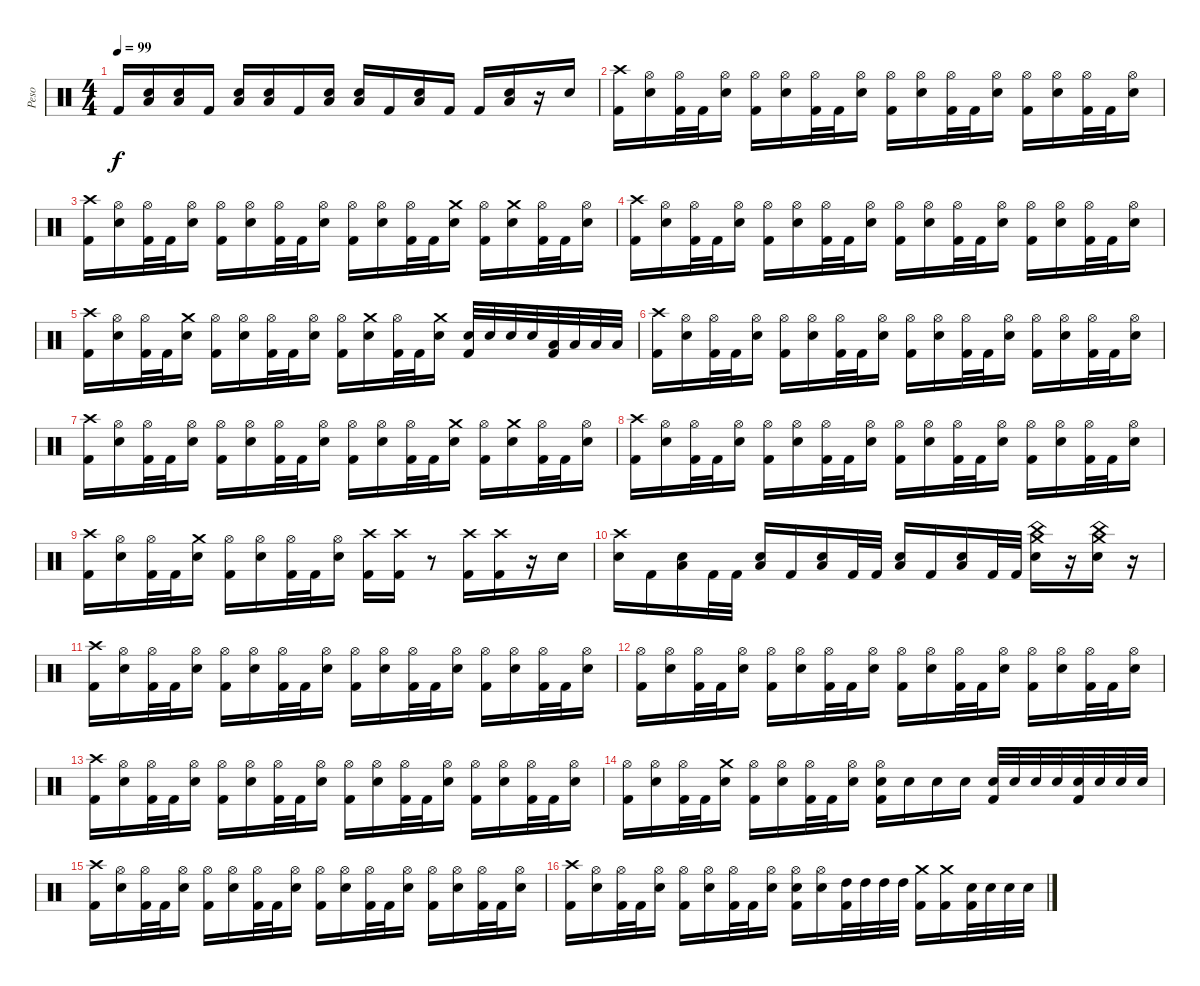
\track ("Peso" "Peso") {instrument percussion}
\staff {score}
\articulation defaults
\ts (4 4)
\tempo 99
\clef neutral
\ks c "Kick (hit) 2".16{dy f}
("Low Floor Tom (hit)" "Electric Snare (hit)").16 ("Low Floor Tom (hit)" "Electric Snare (hit)").16 "Kick (hit) 2".16 ("Low Floor Tom (hit)" "Electric Snare (hit)").16 ("Low Floor Tom (hit)" "Electric Snare (hit)").16 "Kick (hit) 2".16 ("Low Floor Tom (hit)" "Electric Snare (hit)").16 ("Low Floor Tom (hit)" "Electric Snare (hit)").16 "Kick (hit) 2".16 ("Low Floor Tom (hit)" "Electric Snare (hit)").16 "Kick (hit) 2".16 "Kick (hit) 2".16 ("Low Floor Tom (hit)" "Electric Snare (hit)").16 r.16 "Electric Snare (hit)".16 |
("Crash high (hit)" "Kick (hit) 2").16 ("Hi-Hat (open)" "Electric Snare (hit)").16 ("Hi-Hat (open)" "Kick (hit) 2").32 "Kick (hit) 2".32 ("Hi-Hat (open)" "Electric Snare (hit)").16 ("Hi-Hat (open)" "Kick (hit) 2").16 ("Hi-Hat (open)" "Electric Snare (hit)").16 ("Hi-Hat (open)" "Kick (hit) 2").32 "Kick (hit) 2".32 ("Hi-Hat (open)" "Electric Snare (hit)").16 ("Hi-Hat (open)" "Kick (hit) 2").16 ("Hi-Hat (open)" "Electric Snare (hit)").16 ("Hi-Hat (open)" "Kick (hit) 2").32 "Kick (hit) 2".32 ("Hi-Hat (open)" "Electric Snare (hit)").16 ("Hi-Hat (open)" "Kick (hit) 2").16 ("Hi-Hat (open)" "Electric Snare (hit)").16 ("Hi-Hat (open)" "Kick (hit) 2").32 "Kick (hit) 2".32 ("Hi-Hat (open)" "Electric Snare (hit)").16 |
("Crash high (hit)" "Kick (hit) 2").16 ("Hi-Hat (open)" "Electric Snare (hit)").16 ("Hi-Hat (open)" "Kick (hit) 2").32 "Kick (hit) 2".32 ("Hi-Hat (open)" "Electric Snare (hit)").16 ("Hi-Hat (open)" "Kick (hit) 2").16 ("Hi-Hat (open)" "Electric Snare (hit)").16 ("Hi-Hat (open)" "Kick (hit) 2").32 "Kick (hit) 2".32 ("Hi-Hat (open)" "Electric Snare (hit)").16 ("Hi-Hat (open)" "Kick (hit) 2").16 ("Hi-Hat (open)" "Electric Snare (hit)").16 ("Hi-Hat (open)" "Kick (hit) 2").32 "Kick (hit) 2".32 ("Crash medium (hit)" "Electric Snare (hit)").16 ("Hi-Hat (open)" "Kick (hit) 2").16 ("Crash medium (hit)" "Electric Snare (hit)").16 ("Hi-Hat (open)" "Kick (hit) 2").32 "Kick (hit) 2".32 ("Hi-Hat (open)" "Electric Snare (hit)").16 |
("Crash high (hit)" "Kick (hit) 2").16 ("Hi-Hat (open)" "Electric Snare (hit)").16 ("Hi-Hat (open)" "Kick (hit) 2").32 "Kick (hit) 2".32 ("Hi-Hat (open)" "Electric Snare (hit)").16 ("Hi-Hat (open)" "Kick (hit) 2").16 ("Hi-Hat (open)" "Electric Snare (hit)").16 ("Hi-Hat (open)" "Kick (hit) 2").32 "Kick (hit) 2".32 ("Hi-Hat (open)" "Electric Snare (hit)").16 ("Hi-Hat (open)" "Kick (hit) 2").16 ("Hi-Hat (open)" "Electric Snare (hit)").16 ("Hi-Hat (open)" "Kick (hit) 2").32 "Kick (hit) 2".32 ("Hi-Hat (open)" "Electric Snare (hit)").16 ("Hi-Hat (open)" "Kick (hit) 2").16 ("Hi-Hat (open)" "Electric Snare (hit)").16 ("Hi-Hat (open)" "Kick (hit) 2").32 "Kick (hit) 2".32 ("Hi-Hat (open)" "Electric Snare (hit)").16 |
("Crash high (hit)" "Kick (hit) 2").16 ("Hi-Hat (open)" "Electric Snare (hit)").16 ("Hi-Hat (open)" "Kick (hit) 2").32 "Kick (hit) 2".32 ("Crash medium (hit)" "Electric Snare (hit)").16 ("Hi-Hat (open)" "Kick (hit) 2").16 ("Hi-Hat (open)" "Electric Snare (hit)").16 ("Hi-Hat (open)" "Kick (hit) 2").32 "Kick (hit) 2".32 ("Hi-Hat (open)" "Electric Snare (hit)").16 ("Hi-Hat (open)" "Kick (hit) 2").16 ("Crash medium (hit)" "Electric Snare (hit)").16 ("Hi-Hat (open)" "Kick (hit) 2").32 "Kick (hit) 2".32 ("Crash medium (hit)" "Electric Snare (hit)").16 ("Electric Snare (hit)" "Kick (hit) 2").32 "Electric Snare (hit)".32 "Electric Snare (hit)".32 "Electric Snare (hit)".32 ("Low Tom (hit)" "Kick (hit) 2").32 "Low Tom (hit)".32 "Low Tom (hit)".32 "Low Tom (hit)".32 |
("Crash high (hit)" "Kick (hit) 2").16 ("Hi-Hat (open)" "Electric Snare (hit)").16 ("Hi-Hat (open)" "Kick (hit) 2").32 "Kick (hit) 2".32 ("Hi-Hat (open)" "Electric Snare (hit)").16 ("Hi-Hat (open)" "Kick (hit) 2").16 ("Hi-Hat (open)" "Electric Snare (hit)").16 ("Hi-Hat (open)" "Kick (hit) 2").32 "Kick (hit) 2".32 ("Hi-Hat (open)" "Electric Snare (hit)").16 ("Hi-Hat (open)" "Kick (hit) 2").16 ("Hi-Hat (open)" "Electric Snare (hit)").16 ("Hi-Hat (open)" "Kick (hit) 2").32 "Kick (hit) 2".32 ("Hi-Hat (open)" "Electric Snare (hit)").16 ("Hi-Hat (open)" "Kick (hit) 2").16 ("Hi-Hat (open)" "Electric Snare (hit)").16 ("Hi-Hat (open)" "Kick (hit) 2").32 "Kick (hit) 2".32 ("Hi-Hat (open)" "Electric Snare (hit)").16 |
("Crash high (hit)" "Kick (hit) 2").16 ("Hi-Hat (open)" "Electric Snare (hit)").16 ("Hi-Hat (open)" "Kick (hit) 2").32 "Kick (hit) 2".32 ("Hi-Hat (open)" "Electric Snare (hit)").16 ("Hi-Hat (open)" "Kick (hit) 2").16 ("Hi-Hat (open)" "Electric Snare (hit)").16 ("Hi-Hat (open)" "Kick (hit) 2").32 "Kick (hit) 2".32 ("Hi-Hat (open)" "Electric Snare (hit)").16 ("Hi-Hat (open)" "Kick (hit) 2").16 ("Hi-Hat (open)" "Electric Snare (hit)").16 ("Hi-Hat (open)" "Kick (hit) 2").32 "Kick (hit) 2".32 ("Crash medium (hit)" "Electric Snare (hit)").16 ("Hi-Hat (open)" "Kick (hit) 2").16 ("Crash medium (hit)" "Electric Snare (hit)").16 ("Hi-Hat (open)" "Kick (hit) 2").32 "Kick (hit) 2".32 ("Hi-Hat (open)" "Electric Snare (hit)").16 |
("Crash high (hit)" "Kick (hit) 2").16 ("Hi-Hat (open)" "Electric Snare (hit)").16 ("Hi-Hat (open)" "Kick (hit) 2").32 "Kick (hit) 2".32 ("Hi-Hat (open)" "Electric Snare (hit)").16 ("Hi-Hat (open)" "Kick (hit) 2").16 ("Hi-Hat (open)" "Electric Snare (hit)").16 ("Hi-Hat (open)" "Kick (hit) 2").32 "Kick (hit) 2".32 ("Hi-Hat (open)" "Electric Snare (hit)").16 ("Hi-Hat (open)" "Kick (hit) 2").16 ("Hi-Hat (open)" "Electric Snare (hit)").16 ("Hi-Hat (open)" "Kick (hit) 2").32 "Kick (hit) 2".32 ("Hi-Hat (open)" "Electric Snare (hit)").16 ("Hi-Hat (open)" "Kick (hit) 2").16 ("Hi-Hat (open)" "Electric Snare (hit)").16 ("Hi-Hat (open)" "Kick (hit) 2").32 "Kick (hit) 2".32 ("Hi-Hat (open)" "Electric Snare (hit)").16 |
("Crash high (hit)" "Kick (hit) 2").16 ("Hi-Hat (open)" "Electric Snare (hit)").16 ("Hi-Hat (open)" "Kick (hit) 2").32 "Kick (hit) 2".32 ("Crash medium (hit)" "Electric Snare (hit)").16 ("Hi-Hat (open)" "Kick (hit) 2").16 ("Hi-Hat (open)" "Electric Snare (hit)").16 ("Hi-Hat (open)" "Kick (hit) 2").32 "Kick (hit) 2".32 ("Hi-Hat (open)" "Electric Snare (hit)").16 ("Crash high (hit)" "Kick (hit) 2").16 ("Crash high (hit)" "Kick (hit) 2").16 r.8 ("Crash high (hit)" "Kick (hit) 2").16 ("Crash high (hit)" "Kick (hit) 2").16 r.16 "Electric Snare (hit)".16 |
("Crash high (hit)" "Electric Snare (hit)").16 "Kick (hit) 2".16 ("Low Floor Tom (hit)" "Electric Snare (hit)").16 "Kick (hit) 2".32 "Kick (hit) 2".32 ("Low Floor Tom (hit)" "Electric Snare (hit)").16 "Kick (hit) 2".16 ("Low Floor Tom (hit)" "Electric Snare (hit)").16 "Kick (hit) 2".32 "Kick (hit) 2".32 ("Low Floor Tom (hit)" "Electric Snare (hit)").16 "Kick (hit) 2".16 ("Low Floor Tom (hit)" "Electric Snare (hit)").16 "Kick (hit) 2".32 "Kick (hit) 2".32 ("Crash medium (hit)" "China (hit)" "Electric Snare (hit)").16 r.16 ("Crash medium (hit)" "China (hit)" "Electric Snare (hit)").16 r.16 |
("Crash high (hit)" "Kick (hit) 2").16 ("Hi-Hat (open)" "Electric Snare (hit)").16 ("Hi-Hat (open)" "Kick (hit) 2").32 "Kick (hit) 2".32 ("Hi-Hat (open)" "Electric Snare (hit)").16 ("Hi-Hat (open)" "Kick (hit) 2").16 ("Hi-Hat (open)" "Electric Snare (hit)").16 ("Hi-Hat (open)" "Kick (hit) 2").32 "Kick (hit) 2".32 ("Hi-Hat (open)" "Electric Snare (hit)").16 ("Hi-Hat (open)" "Kick (hit) 2").16 ("Hi-Hat (open)" "Electric Snare (hit)").16 ("Hi-Hat (open)" "Kick (hit) 2").32 "Kick (hit) 2".32 ("Hi-Hat (open)" "Electric Snare (hit)").16 ("Hi-Hat (open)" "Kick (hit) 2").16 ("Hi-Hat (open)" "Electric Snare (hit)").16 ("Hi-Hat (open)" "Kick (hit) 2").32 "Kick (hit) 2".32 ("Hi-Hat (open)" "Electric Snare (hit)").16 |
("Hi-Hat (open)" "Kick (hit) 2").16 ("Hi-Hat (open)" "Electric Snare (hit)").16 ("Hi-Hat (open)" "Kick (hit) 2").32 "Kick (hit) 2".32 ("Hi-Hat (open)" "Electric Snare (hit)").16 ("Hi-Hat (open)" "Kick (hit) 2").16 ("Hi-Hat (open)" "Electric Snare (hit)").16 ("Hi-Hat (open)" "Kick (hit) 2").32 "Kick (hit) 2".32 ("Hi-Hat (open)" "Electric Snare (hit)").16 ("Hi-Hat (open)" "Kick (hit) 2").16 ("Hi-Hat (open)" "Electric Snare (hit)").16 ("Hi-Hat (open)" "Kick (hit) 2").32 "Kick (hit) 2".32 ("Hi-Hat (open)" "Electric Snare (hit)").16 ("Hi-Hat (open)" "Kick (hit) 2").16 ("Hi-Hat (open)" "Electric Snare (hit)").16 ("Hi-Hat (open)" "Kick (hit) 2").32 "Kick (hit) 2".32 ("Hi-Hat (open)" "Electric Snare (hit)").16 |
("Crash high (hit)" "Kick (hit) 2").16 ("Hi-Hat (open)" "Electric Snare (hit)").16 ("Hi-Hat (open)" "Kick (hit) 2").32 "Kick (hit) 2".32 ("Hi-Hat (open)" "Electric Snare (hit)").16 ("Hi-Hat (open)" "Kick (hit) 2").16 ("Hi-Hat (open)" "Electric Snare (hit)").16 ("Hi-Hat (open)" "Kick (hit) 2").32 "Kick (hit) 2".32 ("Hi-Hat (open)" "Electric Snare (hit)").16 ("Hi-Hat (open)" "Kick (hit) 2").16 ("Hi-Hat (open)" "Electric Snare (hit)").16 ("Hi-Hat (open)" "Kick (hit) 2").32 "Kick (hit) 2".32 ("Hi-Hat (open)" "Electric Snare (hit)").16 ("Hi-Hat (open)" "Kick (hit) 2").16 ("Hi-Hat (open)" "Electric Snare (hit)").16 ("Hi-Hat (open)" "Kick (hit) 2").32 "Kick (hit) 2".32 ("Hi-Hat (open)" "Electric Snare (hit)").16 |
("Hi-Hat (open)" "Kick (hit) 2").16 ("Hi-Hat (open)" "Electric Snare (hit)").16 ("Hi-Hat (open)" "Kick (hit) 2").32 "Kick (hit) 2".32 ("Crash medium (hit)" "Electric Snare (hit)").16 ("Hi-Hat (open)" "Kick (hit) 2").16 ("Hi-Hat (open)" "Electric Snare (hit)").16 ("Hi-Hat (open)" "Kick (hit) 2").32 "Kick (hit) 2".32 ("Hi-Hat (open)" "Electric Snare (hit)").16 ("Hi-Hat (open)" "Electric Snare (hit)" "Kick (hit) 2").16 "Electric Snare (hit)".16 "Electric Snare (hit)".16 "Electric Snare (hit)".16 ("Electric Snare (hit)" "Kick (hit) 2").32 "Electric Snare (hit)".32 "Electric Snare (hit)".32 "Electric Snare (hit)".32 ("Electric Snare (hit)" "Kick (hit) 2").32 "Electric Snare (hit)".32 "Electric Snare (hit)".32 "Electric Snare (hit)".32 |
("Crash high (hit)" "Kick (hit) 2").16 ("Hi-Hat (open)" "Electric Snare (hit)").16 ("Hi-Hat (open)" "Kick (hit) 2").32 "Kick (hit) 2".32 ("Hi-Hat (open)" "Electric Snare (hit)").16 ("Hi-Hat (open)" "Kick (hit) 2").16 ("Hi-Hat (open)" "Electric Snare (hit)").16 ("Hi-Hat (open)" "Kick (hit) 2").32 "Kick (hit) 2".32 ("Hi-Hat (open)" "Electric Snare (hit)").16 ("Hi-Hat (open)" "Kick (hit) 2").16 ("Hi-Hat (open)" "Electric Snare (hit)").16 ("Hi-Hat (open)" "Kick (hit) 2").32 "Kick (hit) 2".32 ("Hi-Hat (open)" "Electric Snare (hit)").16 ("Hi-Hat (open)" "Kick (hit) 2").16 ("Hi-Hat (open)" "Electric Snare (hit)").16 ("Hi-Hat (open)" "Kick (hit) 2").32 "Kick (hit) 2".32 ("Hi-Hat (open)" "Electric Snare (hit)").16 |
("Crash high (hit)" "Kick (hit) 2").16 ("Hi-Hat (open)" "Electric Snare (hit)").16 ("Hi-Hat (open)" "Kick (hit) 2").32 "Kick (hit) 2".32 ("Hi-Hat (open)" "Electric Snare (hit)").16 ("Hi-Hat (open)" "Kick (hit) 2").16 ("Hi-Hat (open)" "Electric Snare (hit)").16 ("Hi-Hat (open)" "Kick (hit) 2").32 "Kick (hit) 2".32 ("Hi-Hat (open)" "Electric Snare (hit)").16 ("Hi-Hat (open)" "Electric Snare (hit)" "Kick (hit) 2").16 ("Hi-Hat (open)" "Electric Snare (hit)").16 ("High Tom (hit)" "Kick (hit) 2").32 "High Tom (hit)".32 "High Tom (hit)".32 "High Tom (hit)".32 ("Crash medium (hit)" "Kick (hit) 2").16 ("Crash medium (hit)" "Kick (hit) 2").16 ("Electric Snare (hit)" "Kick (hit) 2").32 "Electric Snare (hit)".32 "Electric Snare (hit)".32 "Electric Snare (hit)".32
